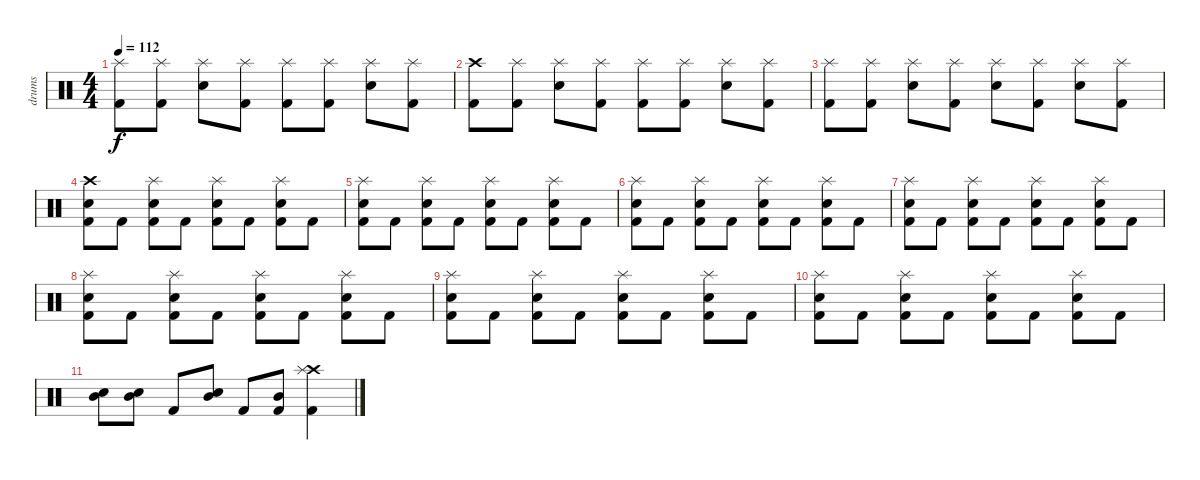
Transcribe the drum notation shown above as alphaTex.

\track ("drums" "drums") {instrument percussion}
\staff {score}
\articulation defaults
\ts (4 4)
\tempo 112
\clef neutral
\ks c
("Splash (hit)" "Kick (hit) 2").8{dy f} ("Splash (hit)" "Kick (hit) 2").8 ("Splash (hit)" "Snare (hit) 2").8 ("Splash (hit)" "Kick (hit) 2").8 ("Splash (hit)" "Kick (hit) 2").8 ("Splash (hit)" "Kick (hit) 2").8 ("Splash (hit)" "Snare (hit) 2").8 ("Splash (hit)" "Kick (hit) 2").8 |
("Crash high (hit)" "Kick (hit) 2").8 ("Splash (hit)" "Kick (hit) 2").8 ("Splash (hit)" "Snare (hit) 2").8 ("Splash (hit)" "Kick (hit) 2").8 ("Splash (hit)" "Kick (hit) 2").8 ("Splash (hit)" "Kick (hit) 2").8 ("Splash (hit)" "Snare (hit) 2").8 ("Splash (hit)" "Kick (hit) 2").8 |
("Splash (hit)" "Kick (hit) 2").8 ("Splash (hit)" "Kick (hit) 2").8 ("Splash (hit)" "Snare (hit) 2").8 ("Splash (hit)" "Kick (hit) 2").8 ("Splash (hit)" "Snare (hit) 2").8 ("Splash (hit)" "Kick (hit) 2").8 ("Splash (hit)" "Snare (hit) 2").8 ("Splash (hit)" "Kick (hit) 2").8 |
("Crash high (hit)" "Snare (hit) 2" "Kick (hit) 2").8 "Kick (hit) 2".8 ("Splash (hit)" "Snare (hit) 2" "Kick (hit) 2").8 "Kick (hit) 2".8 ("Splash (hit)" "Snare (hit) 2" "Kick (hit) 2").8 "Kick (hit) 2".8 ("Splash (hit)" "Snare (hit) 2" "Kick (hit) 2").8 "Kick (hit) 2".8 |
("Splash (hit)" "Snare (hit) 2" "Kick (hit) 2").8 "Kick (hit) 2".8 ("Splash (hit)" "Snare (hit) 2" "Kick (hit) 2").8 "Kick (hit) 2".8 ("Splash (hit)" "Snare (hit) 2" "Kick (hit) 2").8 "Kick (hit) 2".8 ("Splash (hit)" "Snare (hit) 2" "Kick (hit) 2").8 "Kick (hit) 2".8 |
("Splash (hit)" "Snare (hit) 2" "Kick (hit) 2").8 "Kick (hit) 2".8 ("Splash (hit)" "Snare (hit) 2" "Kick (hit) 2").8 "Kick (hit) 2".8 ("Splash (hit)" "Snare (hit) 2" "Kick (hit) 2").8 "Kick (hit) 2".8 ("Splash (hit)" "Snare (hit) 2" "Kick (hit) 2").8 "Kick (hit) 2".8 |
("Splash (hit)" "Snare (hit) 2" "Kick (hit) 2").8 "Kick (hit) 2".8 ("Splash (hit)" "Snare (hit) 2" "Kick (hit) 2").8 "Kick (hit) 2".8 ("Splash (hit)" "Snare (hit) 2" "Kick (hit) 2").8 "Kick (hit) 2".8 ("Splash (hit)" "Snare (hit) 2" "Kick (hit) 2").8 "Kick (hit) 2".8 |
("Splash (hit)" "Snare (hit) 2" "Kick (hit) 2").8 "Kick (hit) 2".8 ("Splash (hit)" "Snare (hit) 2" "Kick (hit) 2").8 "Kick (hit) 2".8 ("Splash (hit)" "Snare (hit) 2" "Kick (hit) 2").8 "Kick (hit) 2".8 ("Splash (hit)" "Snare (hit) 2" "Kick (hit) 2").8 "Kick (hit) 2".8 |
("Splash (hit)" "Snare (hit) 2" "Kick (hit) 2").8 "Kick (hit) 2".8 ("Splash (hit)" "Snare (hit) 2" "Kick (hit) 2").8 "Kick (hit) 2".8 ("Splash (hit)" "Snare (hit) 2" "Kick (hit) 2").8 "Kick (hit) 2".8 ("Splash (hit)" "Snare (hit) 2" "Kick (hit) 2").8 "Kick (hit) 2".8 |
("Splash (hit)" "Snare (hit) 2" "Kick (hit) 2").8 "Kick (hit) 2".8 ("Splash (hit)" "Snare (hit) 2" "Kick (hit) 2").8 "Kick (hit) 2".8 ("Splash (hit)" "Snare (hit) 2" "Kick (hit) 2").8 "Kick (hit) 2".8 ("Splash (hit)" "Snare (hit) 2" "Kick (hit) 2").8 "Kick (hit) 2".8 |
("Snare (hit) 2" "Mid Tom (hit)").8 ("Snare (hit) 2" "Mid Tom (hit)").8 "Kick (hit) 2".8 ("Snare (hit) 2" "Mid Tom (hit)").8 "Kick (hit) 2".8 ("Mid Tom (hit)" "Kick (hit) 2").8 ("Crash high (hit)" "Splash (hit)" "Kick (hit) 2").4
